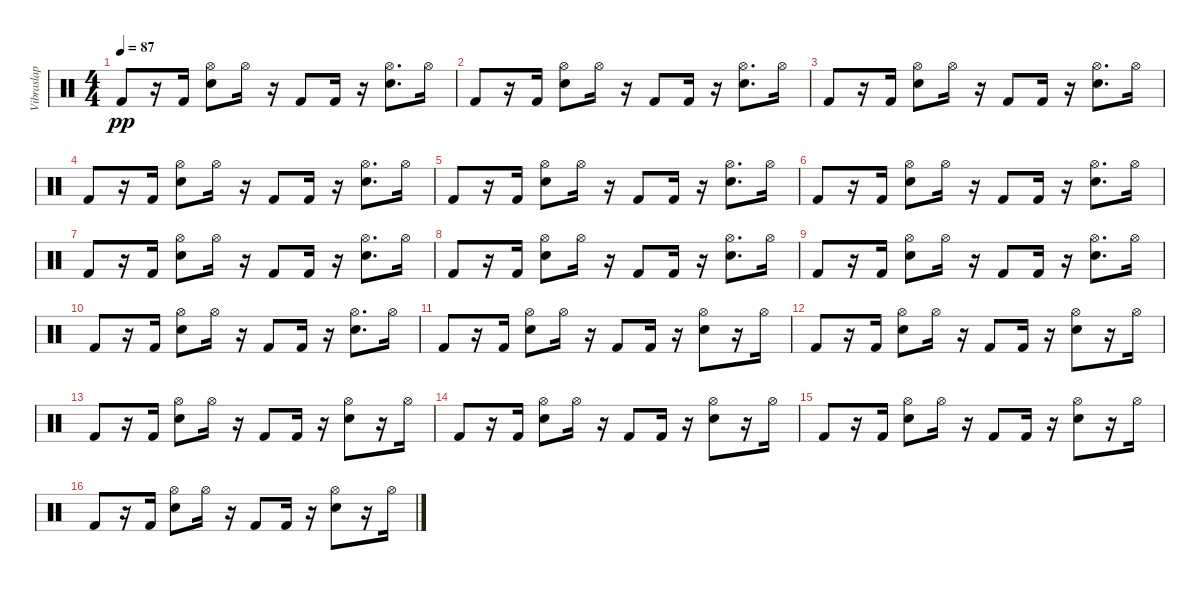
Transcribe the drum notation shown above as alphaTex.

\track ("Vibraslap" "Vibraslap") {instrument percussion}
\staff {score}
\articulation defaults
\ts (4 4)
\tempo 87
\clef neutral
\ks c "Kick (hit) 2".8{dy pp}
r.16 "Kick (hit) 2".16 ("Snare (hit) 2" "Hi-Hat (open)").8 "Hi-Hat (open)".16 r.16 "Kick (hit) 2".8 "Kick (hit) 2".16 r.16 ("Hi-Hat (open)" "Snare (hit) 2").8{d} "Hi-Hat (open)".16 |
"Kick (hit) 2".8 r.16 "Kick (hit) 2".16 ("Snare (hit) 2" "Hi-Hat (open)").8 "Hi-Hat (open)".16 r.16 "Kick (hit) 2".8 "Kick (hit) 2".16 r.16 ("Hi-Hat (open)" "Snare (hit) 2").8{d} "Hi-Hat (open)".16 |
"Kick (hit) 2".8 r.16 "Kick (hit) 2".16 ("Snare (hit) 2" "Hi-Hat (open)").8 "Hi-Hat (open)".16 r.16 "Kick (hit) 2".8 "Kick (hit) 2".16 r.16 ("Hi-Hat (open)" "Snare (hit) 2").8{d} "Hi-Hat (open)".16 |
"Kick (hit) 2".8 r.16 "Kick (hit) 2".16 ("Snare (hit) 2" "Hi-Hat (open)").8 "Hi-Hat (open)".16 r.16 "Kick (hit) 2".8 "Kick (hit) 2".16 r.16 ("Hi-Hat (open)" "Snare (hit) 2").8{d} "Hi-Hat (open)".16 |
"Kick (hit) 2".8 r.16 "Kick (hit) 2".16 ("Snare (hit) 2" "Hi-Hat (open)").8 "Hi-Hat (open)".16 r.16 "Kick (hit) 2".8 "Kick (hit) 2".16 r.16 ("Hi-Hat (open)" "Snare (hit) 2").8{d} "Hi-Hat (open)".16 |
"Kick (hit) 2".8 r.16 "Kick (hit) 2".16 ("Snare (hit) 2" "Hi-Hat (open)").8 "Hi-Hat (open)".16 r.16 "Kick (hit) 2".8 "Kick (hit) 2".16 r.16 ("Hi-Hat (open)" "Snare (hit) 2").8{d} "Hi-Hat (open)".16 |
"Kick (hit) 2".8 r.16 "Kick (hit) 2".16 ("Snare (hit) 2" "Hi-Hat (open)").8 "Hi-Hat (open)".16 r.16 "Kick (hit) 2".8 "Kick (hit) 2".16 r.16 ("Hi-Hat (open)" "Snare (hit) 2").8{d} "Hi-Hat (open)".16 |
"Kick (hit) 2".8 r.16 "Kick (hit) 2".16 ("Snare (hit) 2" "Hi-Hat (open)").8 "Hi-Hat (open)".16 r.16 "Kick (hit) 2".8 "Kick (hit) 2".16 r.16 ("Hi-Hat (open)" "Snare (hit) 2").8{d} "Hi-Hat (open)".16 |
"Kick (hit) 2".8 r.16 "Kick (hit) 2".16 ("Snare (hit) 2" "Hi-Hat (open)").8 "Hi-Hat (open)".16 r.16 "Kick (hit) 2".8 "Kick (hit) 2".16 r.16 ("Hi-Hat (open)" "Snare (hit) 2").8{d} "Hi-Hat (open)".16 |
"Kick (hit) 2".8 r.16 "Kick (hit) 2".16 ("Snare (hit) 2" "Hi-Hat (open)").8 "Hi-Hat (open)".16 r.16 "Kick (hit) 2".8 "Kick (hit) 2".16 r.16 ("Hi-Hat (open)" "Snare (hit) 2").8{d} "Hi-Hat (open)".16 |
"Kick (hit) 2".8 r.16 "Kick (hit) 2".16 ("Snare (hit) 2" "Hi-Hat (open)").8 "Hi-Hat (open)".16 r.16 "Kick (hit) 2".8 "Kick (hit) 2".16 r.16 ("Hi-Hat (open)" "Snare (hit) 2").8 r.16 "Hi-Hat (open)".16 |
"Kick (hit) 2".8 r.16 "Kick (hit) 2".16 ("Snare (hit) 2" "Hi-Hat (open)").8 "Hi-Hat (open)".16 r.16 "Kick (hit) 2".8 "Kick (hit) 2".16 r.16 ("Hi-Hat (open)" "Snare (hit) 2").8 r.16 "Hi-Hat (open)".16 |
"Kick (hit) 2".8 r.16 "Kick (hit) 2".16 ("Snare (hit) 2" "Hi-Hat (open)").8 "Hi-Hat (open)".16 r.16 "Kick (hit) 2".8 "Kick (hit) 2".16 r.16 ("Hi-Hat (open)" "Snare (hit) 2").8 r.16 "Hi-Hat (open)".16 |
"Kick (hit) 2".8 r.16 "Kick (hit) 2".16 ("Snare (hit) 2" "Hi-Hat (open)").8 "Hi-Hat (open)".16 r.16 "Kick (hit) 2".8 "Kick (hit) 2".16 r.16 ("Hi-Hat (open)" "Snare (hit) 2").8 r.16 "Hi-Hat (open)".16 |
"Kick (hit) 2".8 r.16 "Kick (hit) 2".16 ("Snare (hit) 2" "Hi-Hat (open)").8 "Hi-Hat (open)".16 r.16 "Kick (hit) 2".8 "Kick (hit) 2".16 r.16 ("Hi-Hat (open)" "Snare (hit) 2").8 r.16 "Hi-Hat (open)".16 |
"Kick (hit) 2".8 r.16 "Kick (hit) 2".16 ("Snare (hit) 2" "Hi-Hat (open)").8 "Hi-Hat (open)".16 r.16 "Kick (hit) 2".8 "Kick (hit) 2".16 r.16 ("Hi-Hat (open)" "Snare (hit) 2").8 r.16 "Hi-Hat (open)".16
